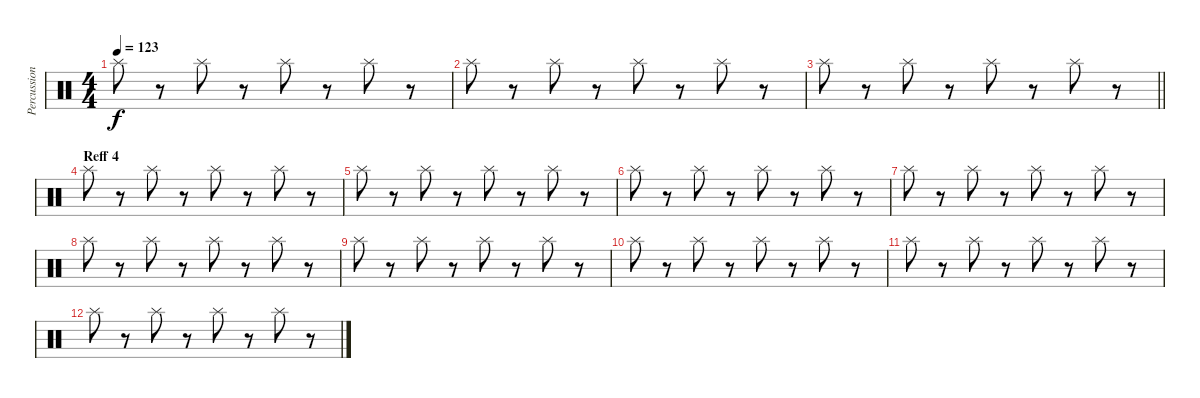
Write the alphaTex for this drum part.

\track ("Percussion 2" "Percussion") {instrument percussion}
\staff {score}
\articulation defaults
\ts (4 4)
\tempo 123
\clef neutral
\ks c "Splash (hit)".8{dy f}
r.8 "Splash (hit)".8 r.8 "Splash (hit)".8 r.8 "Splash (hit)".8 r.8 |
"Splash (hit)".8 r.8 "Splash (hit)".8 r.8 "Splash (hit)".8 r.8 "Splash (hit)".8 r.8 |
\barLineRight lightlight "Splash (hit)".8
r.8 "Splash (hit)".8 r.8 "Splash (hit)".8 r.8 "Splash (hit)".8 r.8 |
\section ("" "Reff 4")
"Splash (hit)".8 r.8 "Splash (hit)".8 r.8 "Splash (hit)".8 r.8 "Splash (hit)".8 r.8 |
"Splash (hit)".8 r.8 "Splash (hit)".8 r.8 "Splash (hit)".8 r.8 "Splash (hit)".8 r.8 |
"Splash (hit)".8 r.8 "Splash (hit)".8 r.8 "Splash (hit)".8 r.8 "Splash (hit)".8 r.8 |
"Splash (hit)".8 r.8 "Splash (hit)".8 r.8 "Splash (hit)".8 r.8 "Splash (hit)".8 r.8 |
"Splash (hit)".8 r.8 "Splash (hit)".8 r.8 "Splash (hit)".8 r.8 "Splash (hit)".8 r.8 |
"Splash (hit)".8 r.8 "Splash (hit)".8 r.8 "Splash (hit)".8 r.8 "Splash (hit)".8 r.8 |
"Splash (hit)".8 r.8 "Splash (hit)".8 r.8 "Splash (hit)".8 r.8 "Splash (hit)".8 r.8 |
"Splash (hit)".8 r.8 "Splash (hit)".8 r.8 "Splash (hit)".8 r.8 "Splash (hit)".8 r.8 |
"Splash (hit)".8 r.8 "Splash (hit)".8 r.8 "Splash (hit)".8 r.8 "Splash (hit)".8 r.8
